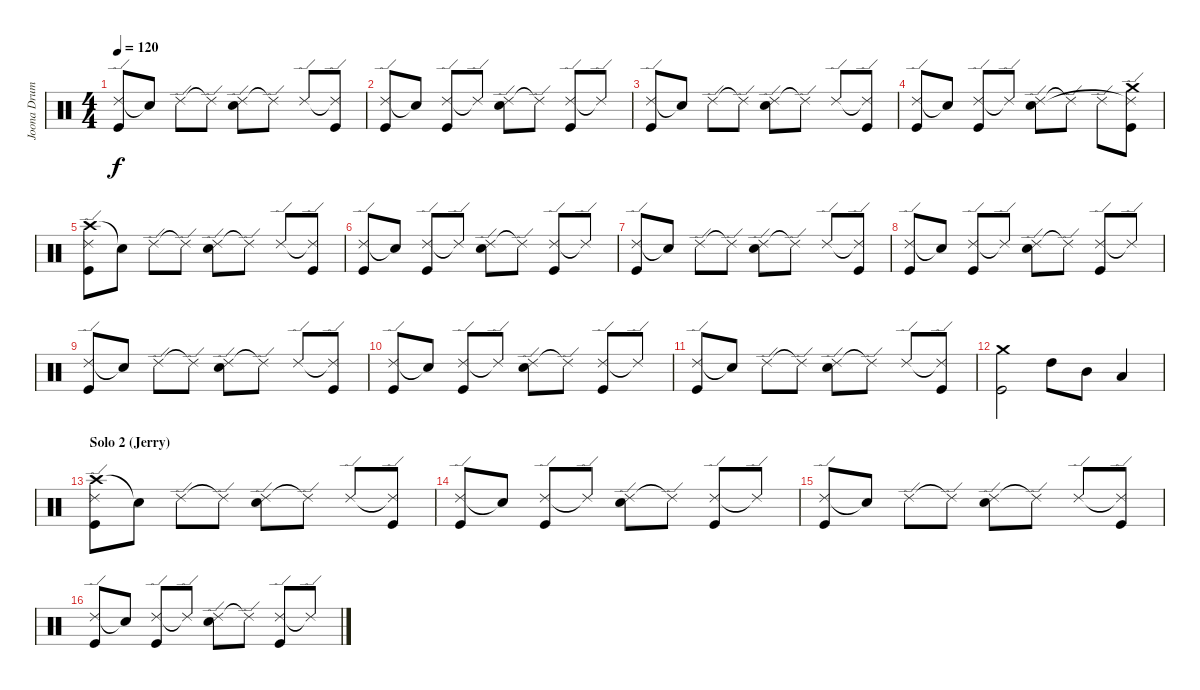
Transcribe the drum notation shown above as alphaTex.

\track ("Joona Drums" "Joona Drum") {instrument percussion}
\staff {score}
\articulation defaults
\ts (4 4)
\tempo 120
\clef neutral
\ks c
("Ride (edge) 2" "Kick (hit)").8{dy f} "Snare (hit)"{t}.8 "Ride (edge) 2".8 "Ride (edge) 2"{t}.8 ("Ride (edge) 2" "Snare (hit) 2").8 "Ride (edge) 2"{t}.8 "Ride (edge) 2".8 ("Ride (edge) 2"{t} "Kick (hit)").8 |
("Ride (edge) 2" "Kick (hit)").8 "Snare (hit)"{t}.8 ("Ride (edge) 2" "Kick (hit)").8 "Ride (edge) 2"{t}.8 ("Ride (edge) 2" "Snare (hit) 2").8 "Ride (edge) 2"{t}.8 ("Ride (edge) 2" "Kick (hit)").8 "Ride (edge) 2"{t}.8 |
("Ride (edge) 2" "Kick (hit)").8 "Snare (hit)"{t}.8 "Ride (edge) 2".8 "Ride (edge) 2"{t}.8 ("Ride (edge) 2" "Snare (hit) 2").8 "Ride (edge) 2"{t}.8 "Ride (edge) 2".8 ("Ride (edge) 2"{t} "Kick (hit)").8 |
("Ride (edge) 2" "Kick (hit)").8 "Snare (hit)"{t}.8 ("Ride (edge) 2" "Kick (hit)").8 "Ride (edge) 2"{t}.8 ("Ride (edge) 2" "Snare (hit) 2").8 "Ride (edge) 2"{t}.8 "Ride (edge) 2".8 ("Crash medium (hit)" "Ride (edge) 2"{t} "Kick (hit)").8 |
("Crash high (hit)" "Ride (edge) 2" "Kick (hit)").8 "Snare (hit)"{t}.8 "Ride (edge) 2".8 "Ride (edge) 2"{t}.8 ("Ride (edge) 2" "Snare (hit) 2").8 "Ride (edge) 2"{t}.8 "Ride (edge) 2".8 ("Ride (edge) 2"{t} "Kick (hit)").8 |
("Ride (edge) 2" "Kick (hit)").8 "Snare (hit)"{t}.8 ("Ride (edge) 2" "Kick (hit)").8 "Ride (edge) 2"{t}.8 ("Ride (edge) 2" "Snare (hit) 2").8 "Ride (edge) 2"{t}.8 ("Ride (edge) 2" "Kick (hit)").8 "Ride (edge) 2"{t}.8 |
("Ride (edge) 2" "Kick (hit)").8 "Snare (hit)"{t}.8 "Ride (edge) 2".8 "Ride (edge) 2"{t}.8 ("Ride (edge) 2" "Snare (hit) 2").8 "Ride (edge) 2"{t}.8 "Ride (edge) 2".8 ("Ride (edge) 2"{t} "Kick (hit)").8 |
("Ride (edge) 2" "Kick (hit)").8 "Snare (hit)"{t}.8 ("Ride (edge) 2" "Kick (hit)").8 "Ride (edge) 2"{t}.8 ("Ride (edge) 2" "Snare (hit) 2").8 "Ride (edge) 2"{t}.8 ("Ride (edge) 2" "Kick (hit)").8 "Ride (edge) 2"{t}.8 |
("Ride (edge) 2" "Kick (hit)").8 "Snare (hit)"{t}.8 "Ride (edge) 2".8 "Ride (edge) 2"{t}.8 ("Ride (edge) 2" "Snare (hit) 2").8 "Ride (edge) 2"{t}.8 "Ride (edge) 2".8 ("Ride (edge) 2"{t} "Kick (hit)").8 |
("Ride (edge) 2" "Kick (hit)").8 "Snare (hit)"{t}.8 ("Ride (edge) 2" "Kick (hit)").8 "Ride (edge) 2"{t}.8 ("Ride (edge) 2" "Snare (hit) 2").8 "Ride (edge) 2"{t}.8 ("Ride (edge) 2" "Kick (hit)").8 "Ride (edge) 2"{t}.8 |
("Ride (edge) 2" "Kick (hit)").8 "Snare (hit)"{t}.8 "Ride (edge) 2".8 "Ride (edge) 2"{t}.8 ("Ride (edge) 2" "Snare (hit) 2").8 "Ride (edge) 2"{t}.8 "Ride (edge) 2".8 ("Ride (edge) 2"{t} "Kick (hit)").8 |
("Crash medium (hit)" "Kick (hit)").2 "High Tom (hit)".8 "Mid Tom (hit)".8 "Low Tom (hit)".4 |
\section ("" "Solo 2 (Jerry)")
("Crash high (hit)" "Ride (edge) 2" "Kick (hit)").8 "Snare (hit)"{t}.8 "Ride (edge) 2".8 "Ride (edge) 2"{t}.8 ("Ride (edge) 2" "Snare (hit) 2").8 "Ride (edge) 2"{t}.8 "Ride (edge) 2".8 ("Ride (edge) 2"{t} "Kick (hit)").8 |
("Ride (edge) 2" "Kick (hit)").8 "Snare (hit)"{t}.8 ("Ride (edge) 2" "Kick (hit)").8 "Ride (edge) 2"{t}.8 ("Ride (edge) 2" "Snare (hit) 2").8 "Ride (edge) 2"{t}.8 ("Ride (edge) 2" "Kick (hit)").8 "Ride (edge) 2"{t}.8 |
("Ride (edge) 2" "Kick (hit)").8 "Snare (hit)"{t}.8 "Ride (edge) 2".8 "Ride (edge) 2"{t}.8 ("Ride (edge) 2" "Snare (hit) 2").8 "Ride (edge) 2"{t}.8 "Ride (edge) 2".8 ("Ride (edge) 2"{t} "Kick (hit)").8 |
("Ride (edge) 2" "Kick (hit)").8 "Snare (hit)"{t}.8 ("Ride (edge) 2" "Kick (hit)").8 "Ride (edge) 2"{t}.8 ("Ride (edge) 2" "Snare (hit) 2").8 "Ride (edge) 2"{t}.8 ("Ride (edge) 2" "Kick (hit)").8 "Ride (edge) 2"{t}.8
